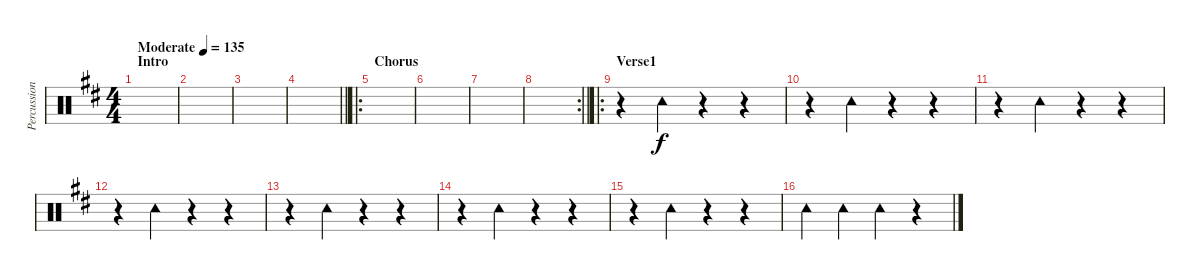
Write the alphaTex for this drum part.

\track ("Percussion" "Percussion") {instrument percussion}
\staff {score}
\articulation defaults
\ts (4 4)
\section ("" "Intro")
\tempo (135 "Moderate")
\clef neutral
\ks d
|
|
|
\barLineRight lightlight
|
\ro
\section ("" "Chorus")
|
|
|
\rc 2
\barLineRight lightlight
|
\ro
\section ("" "Verse1")
r.4 "Tambourine (hit)".4 r.4 r.4 |
r.4 "Tambourine (hit)".4 r.4 r.4 |
r.4 "Tambourine (hit)".4 r.4 r.4 |
r.4 "Tambourine (hit)".4 r.4 r.4 |
r.4 "Tambourine (hit)".4 r.4 r.4 |
r.4 "Tambourine (hit)".4 r.4 r.4 |
r.4 "Tambourine (hit)".4 r.4 r.4 |
"Tambourine (hit)".4 "Tambourine (hit)".4 "Tambourine (hit)".4 r.4
